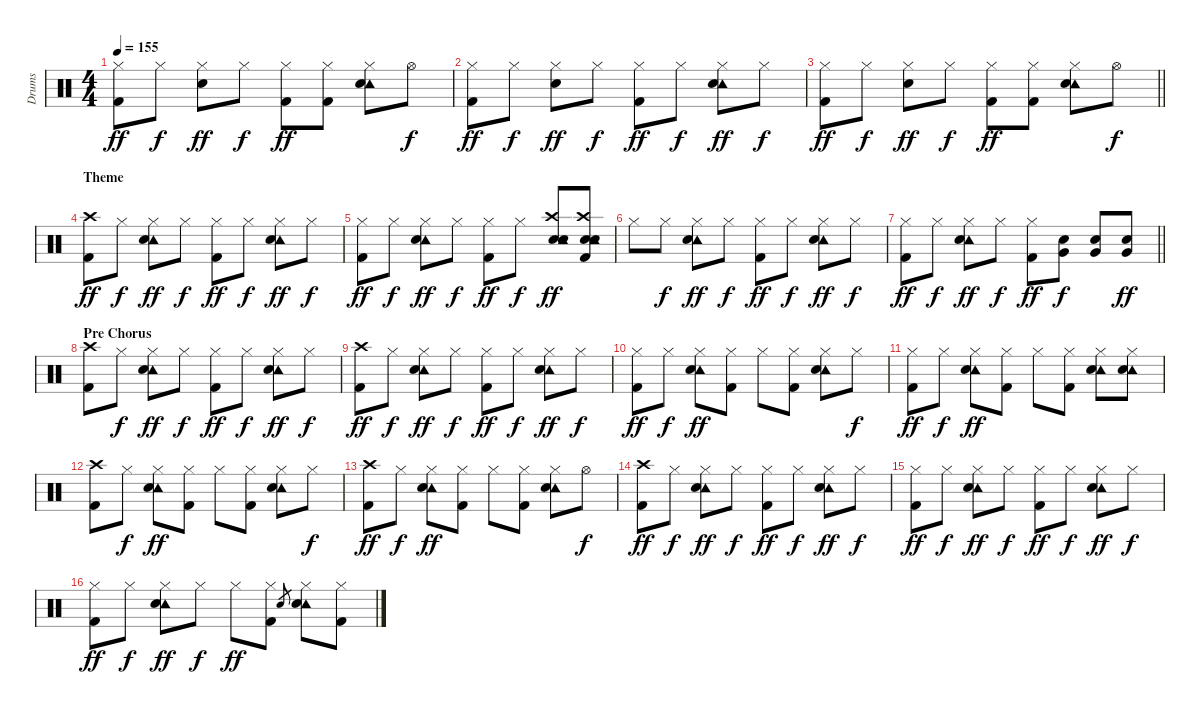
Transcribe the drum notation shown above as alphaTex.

\track ("Drums" "Drums") {instrument percussion}
\staff {score}
\articulation defaults
\ts (4 4)
\tempo 155
\clef neutral
\ks c
("Hi-Hat (closed)" "Kick (hit) 2").8{dy ff} "Hi-Hat (closed)".8{dy f} ("Hi-Hat (closed)" "Snare (hit) 2").8{dy ff} "Hi-Hat (closed)".8{dy f} ("Hi-Hat (closed)" "Kick (hit) 2").8{dy ff} ("Hi-Hat (closed)" "Kick (hit) 2").8 ("Tambourine (hit)" "Hi-Hat (closed)" "Snare (hit) 2").8 "Hi-Hat (open)".8{dy f} |
("Hi-Hat (closed)" "Kick (hit) 2").8{dy ff} "Hi-Hat (closed)".8{dy f} ("Hi-Hat (closed)" "Snare (hit) 2").8{dy ff} "Hi-Hat (closed)".8{dy f} ("Hi-Hat (closed)" "Kick (hit) 2").8{dy ff} "Hi-Hat (closed)".8{dy f} ("Tambourine (hit)" "Hi-Hat (closed)" "Snare (hit) 2").8{dy ff} "Hi-Hat (closed)".8{dy f} |
\barLineRight lightlight
("Hi-Hat (closed)" "Kick (hit) 2").8{dy ff} "Hi-Hat (closed)".8{dy f} ("Hi-Hat (closed)" "Snare (hit) 2").8{dy ff} "Hi-Hat (closed)".8{dy f} ("Hi-Hat (closed)" "Kick (hit) 2").8{dy ff} ("Hi-Hat (closed)" "Kick (hit) 2").8 ("Tambourine (hit)" "Hi-Hat (closed)" "Snare (hit) 2").8 "Hi-Hat (open)".8{dy f} |
\section ("" "Theme")
("Crash high (hit)" "Kick (hit) 2").8{dy ff} "Hi-Hat (closed)".8{dy f} ("Tambourine (hit)" "Hi-Hat (closed)" "Snare (hit) 2").8{dy ff} "Hi-Hat (closed)".8{dy f} ("Hi-Hat (closed)" "Kick (hit) 2").8{dy ff} "Hi-Hat (closed)".8{dy f} ("Tambourine (hit)" "Hi-Hat (closed)" "Snare (hit) 2").8{dy ff} "Hi-Hat (closed)".8{dy f} |
("Hi-Hat (closed)" "Kick (hit) 2").8{dy ff} "Hi-Hat (closed)".8{dy f} ("Tambourine (hit)" "Hi-Hat (closed)" "Snare (hit) 2").8{dy ff} "Hi-Hat (closed)".8{dy f} ("Hi-Hat (closed)" "Kick (hit) 2").8{dy ff} "Hi-Hat (closed)".8{dy f} ("Hand Clap (hit)" "Tambourine (hit)" "Crash high (hit)" "Snare (hit) 2").8{dy ff} ("Hand Clap (hit)" "Tambourine (hit)" "Crash high (hit)" "Snare (hit) 2" "Kick (hit) 2").8 |
"Hi-Hat (closed)".8 "Hi-Hat (closed)".8{dy f} ("Tambourine (hit)" "Hi-Hat (closed)" "Snare (hit) 2").8{dy ff} "Hi-Hat (closed)".8{dy f} ("Hi-Hat (closed)" "Kick (hit) 2").8{dy ff} "Hi-Hat (closed)".8{dy f} ("Tambourine (hit)" "Hi-Hat (closed)" "Snare (hit) 2").8{dy ff} "Hi-Hat (closed)".8{dy f} |
\barLineRight lightlight
("Hi-Hat (closed)" "Kick (hit) 2").8{dy ff} "Hi-Hat (closed)".8{dy f} ("Tambourine (hit)" "Hi-Hat (closed)" "Snare (hit) 2").8{dy ff} "Hi-Hat (closed)".8{dy f} ("Hi-Hat (closed)" "Kick (hit) 2").8{dy ff} ("Very Low Tom (hit)" "Snare (hit) 2").8{dy f} ("Very Low Tom (hit)" "Snare (hit) 2").8 ("Very Low Tom (hit)" "Snare (hit) 2").8{dy ff} |
\section ("" "Pre Chorus")
("Crash high (hit)" "Kick (hit) 2").8 "Hi-Hat (closed)".8{dy f} ("Tambourine (hit)" "Hi-Hat (closed)" "Snare (hit) 2").8{dy ff} "Hi-Hat (closed)".8{dy f} ("Hi-Hat (closed)" "Kick (hit) 2").8{dy ff} "Hi-Hat (closed)".8{dy f} ("Tambourine (hit)" "Hi-Hat (closed)" "Snare (hit) 2").8{dy ff} "Hi-Hat (closed)".8{dy f} |
("Crash high (hit)" "Kick (hit) 2").8{dy ff} "Hi-Hat (closed)".8{dy f} ("Tambourine (hit)" "Hi-Hat (closed)" "Snare (hit) 2").8{dy ff} "Hi-Hat (closed)".8{dy f} ("Hi-Hat (closed)" "Kick (hit) 2").8{dy ff} "Hi-Hat (closed)".8{dy f} ("Tambourine (hit)" "Hi-Hat (closed)" "Snare (hit) 2").8{dy ff} "Hi-Hat (closed)".8{dy f} |
("Hi-Hat (closed)" "Kick (hit) 2").8{dy ff} "Hi-Hat (closed)".8{dy f} ("Tambourine (hit)" "Hi-Hat (closed)" "Snare (hit) 2").8{dy ff} ("Hi-Hat (closed)" "Kick (hit) 2").8 "Hi-Hat (closed)".8 ("Hi-Hat (closed)" "Kick (hit) 2").8 ("Tambourine (hit)" "Hi-Hat (closed)" "Snare (hit) 2").8 "Hi-Hat (closed)".8{dy f} |
("Hi-Hat (closed)" "Kick (hit) 2").8{dy ff} "Hi-Hat (closed)".8{dy f} ("Tambourine (hit)" "Hi-Hat (closed)" "Snare (hit) 2").8{dy ff} ("Hi-Hat (closed)" "Kick (hit) 2").8 "Hi-Hat (closed)".8 ("Hi-Hat (closed)" "Kick (hit) 2").8 ("Tambourine (hit)" "Hi-Hat (closed)" "Snare (hit) 2").8 ("Tambourine (hit)" "Hi-Hat (closed)" "Snare (hit) 2").8 |
("Crash high (hit)" "Kick (hit) 2").8 "Hi-Hat (closed)".8{dy f} ("Tambourine (hit)" "Hi-Hat (closed)" "Snare (hit) 2").8{dy ff} ("Hi-Hat (closed)" "Kick (hit) 2").8 "Hi-Hat (closed)".8 ("Hi-Hat (closed)" "Kick (hit) 2").8 ("Tambourine (hit)" "Hi-Hat (closed)" "Snare (hit) 2").8 "Hi-Hat (closed)".8{dy f} |
("Crash high (hit)" "Kick (hit) 2").8{dy ff} "Hi-Hat (closed)".8{dy f} ("Tambourine (hit)" "Hi-Hat (closed)" "Snare (hit) 2").8{dy ff} ("Hi-Hat (closed)" "Kick (hit) 2").8 "Hi-Hat (closed)".8 ("Hi-Hat (closed)" "Kick (hit) 2").8 ("Tambourine (hit)" "Hi-Hat (closed)" "Snare (hit) 2").8 "Hi-Hat (open)".8{dy f} |
("Crash high (hit)" "Kick (hit) 2").8{dy ff} "Hi-Hat (closed)".8{dy f} ("Tambourine (hit)" "Hi-Hat (closed)" "Snare (hit) 2").8{dy ff} "Hi-Hat (closed)".8{dy f} ("Hi-Hat (closed)" "Kick (hit) 2").8{dy ff} "Hi-Hat (closed)".8{dy f} ("Tambourine (hit)" "Hi-Hat (closed)" "Snare (hit) 2").8{dy ff} "Hi-Hat (closed)".8{dy f} |
("Hi-Hat (closed)" "Kick (hit) 2").8{dy ff} "Hi-Hat (closed)".8{dy f} ("Tambourine (hit)" "Hi-Hat (closed)" "Snare (hit) 2").8{dy ff} "Hi-Hat (closed)".8{dy f} ("Hi-Hat (closed)" "Kick (hit) 2").8{dy ff} "Hi-Hat (closed)".8{dy f} ("Tambourine (hit)" "Hi-Hat (closed)" "Snare (hit) 2").8{dy ff} "Hi-Hat (closed)".8{dy f} |
("Hi-Hat (closed)" "Kick (hit) 2").8{dy ff} "Hi-Hat (closed)".8{dy f} ("Tambourine (hit)" "Hi-Hat (closed)" "Snare (hit) 2").8{dy ff} "Hi-Hat (closed)".8{dy f} "Hi-Hat (closed)".8{dy ff} ("Hi-Hat (closed)" "Kick (hit) 2").8 "Snare (hit) 2".8{gr} ("Tambourine (hit)" "Hi-Hat (closed)" "Snare (hit) 2").8 ("Hi-Hat (closed)" "Kick (hit) 2").8
